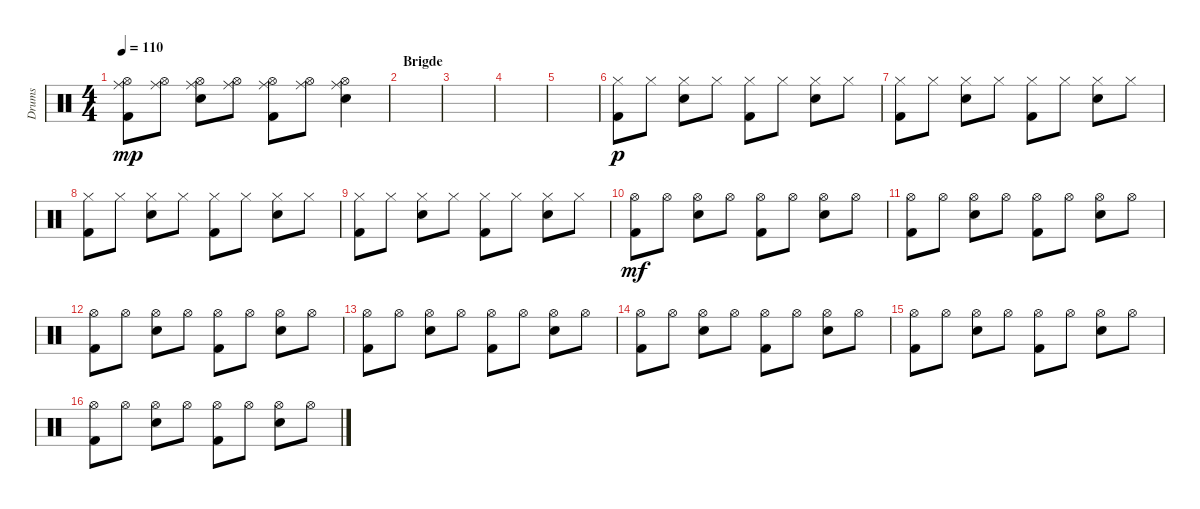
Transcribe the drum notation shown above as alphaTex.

\track ("Drums" "Drums") {instrument percussion}
\staff {score}
\articulation defaults
\ts (4 4)
\tempo 110
\clef neutral
\ks c
("Hi-Hat (open)" "Ride (middle)" "Kick (hit) 2").8{dy mp} ("Hi-Hat (open)" "Ride (middle)").8 ("Hi-Hat (open)" "Ride (middle)" "Snare (hit) 2").8 ("Hi-Hat (open)" "Ride (middle)").8 ("Hi-Hat (open)" "Ride (middle)" "Kick (hit) 2").8 ("Hi-Hat (open)" "Ride (middle)").8 ("Hi-Hat (open)" "Snare (hit) 2" "Ride (middle)").4 |
\section ("" "Brigde")
|
|
|
|
("Hi-Hat (closed)" "Kick (hit) 2").8{dy p} "Hi-Hat (closed)".8 ("Hi-Hat (closed)" "Snare (hit) 2").8 "Hi-Hat (closed)".8 ("Hi-Hat (closed)" "Kick (hit) 2").8 "Hi-Hat (closed)".8 ("Hi-Hat (closed)" "Snare (hit) 2").8 "Hi-Hat (closed)".8 |
("Hi-Hat (closed)" "Kick (hit) 2").8 "Hi-Hat (closed)".8 ("Hi-Hat (closed)" "Snare (hit) 2").8 "Hi-Hat (closed)".8 ("Hi-Hat (closed)" "Kick (hit) 2").8 "Hi-Hat (closed)".8 ("Hi-Hat (closed)" "Snare (hit) 2").8 "Hi-Hat (closed)".8 |
("Hi-Hat (closed)" "Kick (hit) 2").8 "Hi-Hat (closed)".8 ("Hi-Hat (closed)" "Snare (hit) 2").8 "Hi-Hat (closed)".8 ("Hi-Hat (closed)" "Kick (hit) 2").8 "Hi-Hat (closed)".8 ("Hi-Hat (closed)" "Snare (hit) 2").8 "Hi-Hat (closed)".8 |
("Hi-Hat (closed)" "Kick (hit) 2").8 "Hi-Hat (closed)".8 ("Hi-Hat (closed)" "Snare (hit) 2").8 "Hi-Hat (closed)".8 ("Hi-Hat (closed)" "Kick (hit) 2").8 "Hi-Hat (closed)".8 ("Hi-Hat (closed)" "Snare (hit) 2").8 "Hi-Hat (closed)".8 |
("Hi-Hat (open)" "Kick (hit) 2").8{dy mf} "Hi-Hat (open)".8 ("Hi-Hat (open)" "Snare (hit) 2").8 "Hi-Hat (open)".8 ("Hi-Hat (open)" "Kick (hit) 2").8 "Hi-Hat (open)".8 ("Hi-Hat (open)" "Snare (hit) 2").8 "Hi-Hat (open)".8 |
("Hi-Hat (open)" "Kick (hit) 2").8 "Hi-Hat (open)".8 ("Hi-Hat (open)" "Snare (hit) 2").8 "Hi-Hat (open)".8 ("Hi-Hat (open)" "Kick (hit) 2").8 "Hi-Hat (open)".8 ("Hi-Hat (open)" "Snare (hit) 2").8 "Hi-Hat (open)".8 |
("Hi-Hat (open)" "Kick (hit) 2").8 "Hi-Hat (open)".8 ("Hi-Hat (open)" "Snare (hit) 2").8 "Hi-Hat (open)".8 ("Hi-Hat (open)" "Kick (hit) 2").8 "Hi-Hat (open)".8 ("Hi-Hat (open)" "Snare (hit) 2").8 "Hi-Hat (open)".8 |
("Hi-Hat (open)" "Kick (hit) 2").8 "Hi-Hat (open)".8 ("Hi-Hat (open)" "Snare (hit) 2").8 "Hi-Hat (open)".8 ("Hi-Hat (open)" "Kick (hit) 2").8 "Hi-Hat (open)".8 ("Hi-Hat (open)" "Snare (hit) 2").8 "Hi-Hat (open)".8 |
("Hi-Hat (open)" "Kick (hit) 2").8 "Hi-Hat (open)".8 ("Hi-Hat (open)" "Snare (hit) 2").8 "Hi-Hat (open)".8 ("Hi-Hat (open)" "Kick (hit) 2").8 "Hi-Hat (open)".8 ("Hi-Hat (open)" "Snare (hit) 2").8 "Hi-Hat (open)".8 |
("Hi-Hat (open)" "Kick (hit) 2").8 "Hi-Hat (open)".8 ("Hi-Hat (open)" "Snare (hit) 2").8 "Hi-Hat (open)".8 ("Hi-Hat (open)" "Kick (hit) 2").8 "Hi-Hat (open)".8 ("Hi-Hat (open)" "Snare (hit) 2").8 "Hi-Hat (open)".8 |
("Hi-Hat (open)" "Kick (hit) 2").8 "Hi-Hat (open)".8 ("Hi-Hat (open)" "Snare (hit) 2").8 "Hi-Hat (open)".8 ("Hi-Hat (open)" "Kick (hit) 2").8 "Hi-Hat (open)".8 ("Hi-Hat (open)" "Snare (hit) 2").8 "Hi-Hat (open)".8
